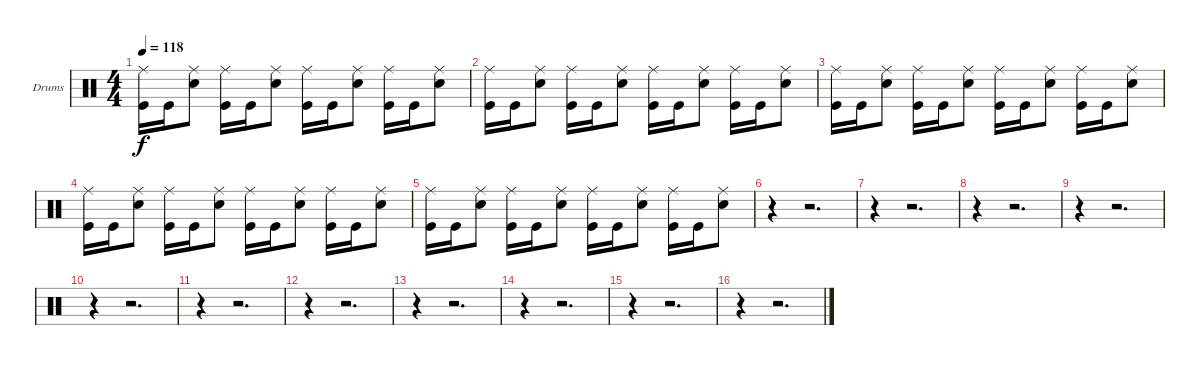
\bracketExtendMode groupsimilarinstruments
\firstSystemTrackNameOrientation horizontal
\otherSystemsTrackNameOrientation horizontal
\track ("Drumkit" "Drums") {instrument percussion}
\staff {score}
\articulation defaults
\ts (4 4)
\tempo 118
\clef neutral
\ks c
("Ride (middle)" "Kick (hit)").16{dy f} "Kick (hit)".16 ("Ride (middle)" "Snare (hit) 2").8 ("Ride (middle)" "Kick (hit)").16 "Kick (hit)".16 ("Ride (middle)" "Snare (hit) 2").8 ("Ride (middle)" "Kick (hit)").16 "Kick (hit)".16 ("Ride (middle)" "Snare (hit) 2").8 ("Ride (middle)" "Kick (hit)").16 "Kick (hit)".16 ("Ride (middle)" "Snare (hit) 2").8 |
("Ride (middle)" "Kick (hit)").16 "Kick (hit)".16 ("Ride (middle)" "Snare (hit) 2").8 ("Ride (middle)" "Kick (hit)").16 "Kick (hit)".16 ("Ride (middle)" "Snare (hit) 2").8 ("Ride (middle)" "Kick (hit)").16 "Kick (hit)".16 ("Ride (middle)" "Snare (hit) 2").8 ("Ride (middle)" "Kick (hit)").16 "Kick (hit)".16 ("Ride (middle)" "Snare (hit) 2").8 |
("Ride (middle)" "Kick (hit)").16 "Kick (hit)".16 ("Ride (middle)" "Snare (hit) 2").8 ("Ride (middle)" "Kick (hit)").16 "Kick (hit)".16 ("Ride (middle)" "Snare (hit) 2").8 ("Ride (middle)" "Kick (hit)").16 "Kick (hit)".16 ("Ride (middle)" "Snare (hit) 2").8 ("Ride (middle)" "Kick (hit)").16 "Kick (hit)".16 ("Ride (middle)" "Snare (hit) 2").8 |
("Ride (middle)" "Kick (hit)").16 "Kick (hit)".16 ("Ride (middle)" "Snare (hit) 2").8 ("Ride (middle)" "Kick (hit)").16 "Kick (hit)".16 ("Ride (middle)" "Snare (hit) 2").8 ("Ride (middle)" "Kick (hit)").16 "Kick (hit)".16 ("Ride (middle)" "Snare (hit) 2").8 ("Ride (middle)" "Kick (hit)").16 "Kick (hit)".16 ("Ride (middle)" "Snare (hit) 2").8 |
("Ride (middle)" "Kick (hit)").16 "Kick (hit)".16 ("Ride (middle)" "Snare (hit) 2").8 ("Ride (middle)" "Kick (hit)").16 "Kick (hit)".16 ("Ride (middle)" "Snare (hit) 2").8 ("Ride (middle)" "Kick (hit)").16 "Kick (hit)".16 ("Ride (middle)" "Snare (hit) 2").8 ("Ride (middle)" "Kick (hit)").16 "Kick (hit)".16 ("Ride (middle)" "Snare (hit) 2").8 |
r.4 r.2{d} |
r.4 r.2{d} |
r.4 r.2{d} |
r.4 r.2{d} |
r.4 r.2{d} |
r.4 r.2{d} |
r.4 r.2{d} |
r.4 r.2{d} |
r.4 r.2{d} |
r.4 r.2{d} |
r.4 r.2{d}
